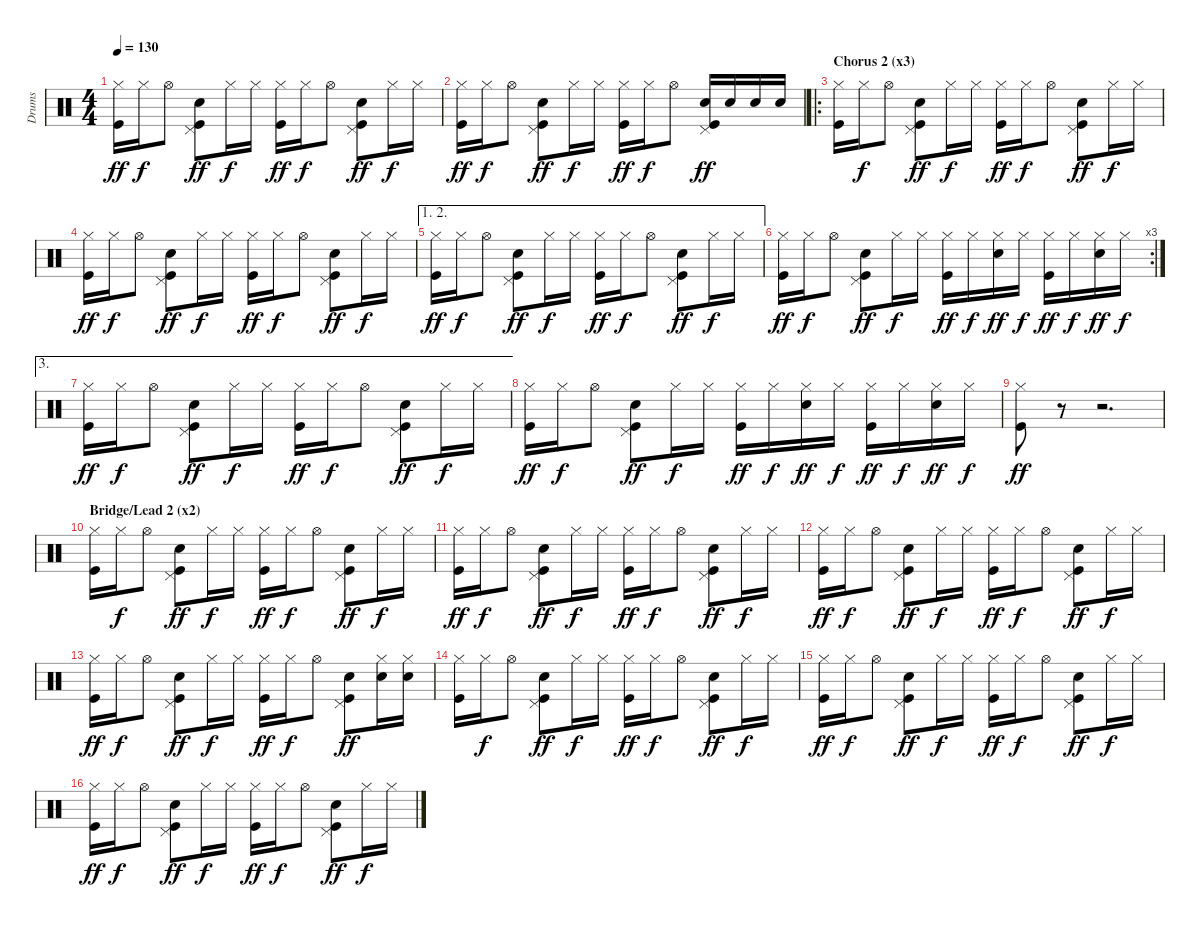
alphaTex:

\track ("Drums" "Drums") {instrument percussion}
\staff {score}
\articulation defaults
\ts (4 4)
\tempo 130
\clef neutral
\ks c
("Hi-Hat (closed)" "Kick (hit)").16{dy ff} "Hi-Hat (closed)".16{dy f} "Hi-Hat (open)".8 ("Pedal Hi-Hat (hit)" "Electric Snare (hit)" "Kick (hit)").8{dy ff} "Hi-Hat (closed)".16{dy f} "Hi-Hat (closed)".16 ("Hi-Hat (closed)" "Kick (hit)").16{dy ff} "Hi-Hat (closed)".16{dy f} "Hi-Hat (open)".8 ("Pedal Hi-Hat (hit)" "Electric Snare (hit)" "Kick (hit)").8{dy ff} "Hi-Hat (closed)".16{dy f} "Hi-Hat (closed)".16 |
("Hi-Hat (closed)" "Kick (hit)").16{dy ff} "Hi-Hat (closed)".16{dy f} "Hi-Hat (open)".8 ("Pedal Hi-Hat (hit)" "Electric Snare (hit)" "Kick (hit)").8{dy ff} "Hi-Hat (closed)".16{dy f} "Hi-Hat (closed)".16 ("Hi-Hat (closed)" "Kick (hit)").16{dy ff} "Hi-Hat (closed)".16{dy f} "Hi-Hat (open)".8 ("Pedal Hi-Hat (hit)" "Electric Snare (hit)" "Kick (hit)").16{dy ff} "Electric Snare (hit)".16 "Electric Snare (hit)".16 "Electric Snare (hit)".16 |
\ro
\section ("" "Chorus 2 (x3)")
("Hi-Hat (closed)" "Kick (hit)").16 "Hi-Hat (closed)".16{dy f} "Hi-Hat (open)".8 ("Pedal Hi-Hat (hit)" "Electric Snare (hit)" "Kick (hit)").8{dy ff} "Hi-Hat (closed)".16{dy f} "Hi-Hat (closed)".16 ("Hi-Hat (closed)" "Kick (hit)").16{dy ff} "Hi-Hat (closed)".16{dy f} "Hi-Hat (open)".8 ("Pedal Hi-Hat (hit)" "Electric Snare (hit)" "Kick (hit)").8{dy ff} "Hi-Hat (closed)".16{dy f} "Hi-Hat (closed)".16 |
("Hi-Hat (closed)" "Kick (hit)").16{dy ff} "Hi-Hat (closed)".16{dy f} "Hi-Hat (open)".8 ("Pedal Hi-Hat (hit)" "Electric Snare (hit)" "Kick (hit)").8{dy ff} "Hi-Hat (closed)".16{dy f} "Hi-Hat (closed)".16 ("Hi-Hat (closed)" "Kick (hit)").16{dy ff} "Hi-Hat (closed)".16{dy f} "Hi-Hat (open)".8 ("Pedal Hi-Hat (hit)" "Electric Snare (hit)" "Kick (hit)").8{dy ff} "Hi-Hat (closed)".16{dy f} "Hi-Hat (closed)".16 |
\ae (1 2)
("Hi-Hat (closed)" "Kick (hit)").16{dy ff} "Hi-Hat (closed)".16{dy f} "Hi-Hat (open)".8 ("Pedal Hi-Hat (hit)" "Electric Snare (hit)" "Kick (hit)").8{dy ff} "Hi-Hat (closed)".16{dy f} "Hi-Hat (closed)".16 ("Hi-Hat (closed)" "Kick (hit)").16{dy ff} "Hi-Hat (closed)".16{dy f} "Hi-Hat (open)".8 ("Pedal Hi-Hat (hit)" "Electric Snare (hit)" "Kick (hit)").8{dy ff} "Hi-Hat (closed)".16{dy f} "Hi-Hat (closed)".16 |
\rc 3
("Hi-Hat (closed)" "Kick (hit)").16{dy ff} "Hi-Hat (closed)".16{dy f} "Hi-Hat (open)".8 ("Pedal Hi-Hat (hit)" "Electric Snare (hit)" "Kick (hit)").8{dy ff} "Hi-Hat (closed)".16{dy f} "Hi-Hat (closed)".16 ("Hi-Hat (closed)" "Kick (hit)").16{dy ff} "Hi-Hat (closed)".16{dy f} ("Hi-Hat (closed)" "Electric Snare (hit)").16{dy ff} "Hi-Hat (closed)".16{dy f} ("Hi-Hat (closed)" "Kick (hit)").16{dy ff} "Hi-Hat (closed)".16{dy f} ("Hi-Hat (closed)" "Electric Snare (hit)").16{dy ff} "Hi-Hat (closed)".16{dy f} |
\ae 3
("Hi-Hat (closed)" "Kick (hit)").16{dy ff} "Hi-Hat (closed)".16{dy f} "Hi-Hat (open)".8 ("Pedal Hi-Hat (hit)" "Electric Snare (hit)" "Kick (hit)").8{dy ff} "Hi-Hat (closed)".16{dy f} "Hi-Hat (closed)".16 ("Hi-Hat (closed)" "Kick (hit)").16{dy ff} "Hi-Hat (closed)".16{dy f} "Hi-Hat (open)".8 ("Pedal Hi-Hat (hit)" "Electric Snare (hit)" "Kick (hit)").8{dy ff} "Hi-Hat (closed)".16{dy f} "Hi-Hat (closed)".16 |
("Hi-Hat (closed)" "Kick (hit)").16{dy ff} "Hi-Hat (closed)".16{dy f} "Hi-Hat (open)".8 ("Pedal Hi-Hat (hit)" "Electric Snare (hit)" "Kick (hit)").8{dy ff} "Hi-Hat (closed)".16{dy f} "Hi-Hat (closed)".16 ("Hi-Hat (closed)" "Kick (hit)").16{dy ff} "Hi-Hat (closed)".16{dy f} ("Hi-Hat (closed)" "Electric Snare (hit)").16{dy ff} "Hi-Hat (closed)".16{dy f} ("Hi-Hat (closed)" "Kick (hit)").16{dy ff} "Hi-Hat (closed)".16{dy f} ("Hi-Hat (closed)" "Electric Snare (hit)").16{dy ff} "Hi-Hat (closed)".16{dy f} |
("Hi-Hat (closed)" "Kick (hit)").8{dy ff} r.8 r.2{d} |
\section ("" "Bridge/Lead 2 (x2)")
("Hi-Hat (closed)" "Kick (hit)").16 "Hi-Hat (closed)".16{dy f} "Hi-Hat (open)".8 ("Pedal Hi-Hat (hit)" "Electric Snare (hit)" "Kick (hit)").8{dy ff} "Hi-Hat (closed)".16{dy f} "Hi-Hat (closed)".16 ("Hi-Hat (closed)" "Kick (hit)").16{dy ff} "Hi-Hat (closed)".16{dy f} "Hi-Hat (open)".8 ("Pedal Hi-Hat (hit)" "Electric Snare (hit)" "Kick (hit)").8{dy ff} "Hi-Hat (closed)".16{dy f} "Hi-Hat (closed)".16 |
("Hi-Hat (closed)" "Kick (hit)").16{dy ff} "Hi-Hat (closed)".16{dy f} "Hi-Hat (open)".8 ("Pedal Hi-Hat (hit)" "Electric Snare (hit)" "Kick (hit)").8{dy ff} "Hi-Hat (closed)".16{dy f} "Hi-Hat (closed)".16 ("Hi-Hat (closed)" "Kick (hit)").16{dy ff} "Hi-Hat (closed)".16{dy f} "Hi-Hat (open)".8 ("Pedal Hi-Hat (hit)" "Electric Snare (hit)" "Kick (hit)").8{dy ff} "Hi-Hat (closed)".16{dy f} "Hi-Hat (closed)".16 |
("Hi-Hat (closed)" "Kick (hit)").16{dy ff} "Hi-Hat (closed)".16{dy f} "Hi-Hat (open)".8 ("Pedal Hi-Hat (hit)" "Electric Snare (hit)" "Kick (hit)").8{dy ff} "Hi-Hat (closed)".16{dy f} "Hi-Hat (closed)".16 ("Hi-Hat (closed)" "Kick (hit)").16{dy ff} "Hi-Hat (closed)".16{dy f} "Hi-Hat (open)".8 ("Pedal Hi-Hat (hit)" "Electric Snare (hit)" "Kick (hit)").8{dy ff} "Hi-Hat (closed)".16{dy f} "Hi-Hat (closed)".16 |
("Hi-Hat (closed)" "Kick (hit)").16{dy ff} "Hi-Hat (closed)".16{dy f} "Hi-Hat (open)".8 ("Pedal Hi-Hat (hit)" "Electric Snare (hit)" "Kick (hit)").8{dy ff} "Hi-Hat (closed)".16{dy f} "Hi-Hat (closed)".16 ("Hi-Hat (closed)" "Kick (hit)").16{dy ff} "Hi-Hat (closed)".16{dy f} "Hi-Hat (open)".8 ("Pedal Hi-Hat (hit)" "Electric Snare (hit)" "Kick (hit)").8{dy ff} ("Hi-Hat (closed)" "Electric Snare (hit)").16 ("Hi-Hat (closed)" "Electric Snare (hit)").16 |
("Hi-Hat (closed)" "Kick (hit)").16 "Hi-Hat (closed)".16{dy f} "Hi-Hat (open)".8 ("Pedal Hi-Hat (hit)" "Electric Snare (hit)" "Kick (hit)").8{dy ff} "Hi-Hat (closed)".16{dy f} "Hi-Hat (closed)".16 ("Hi-Hat (closed)" "Kick (hit)").16{dy ff} "Hi-Hat (closed)".16{dy f} "Hi-Hat (open)".8 ("Pedal Hi-Hat (hit)" "Electric Snare (hit)" "Kick (hit)").8{dy ff} "Hi-Hat (closed)".16{dy f} "Hi-Hat (closed)".16 |
("Hi-Hat (closed)" "Kick (hit)").16{dy ff} "Hi-Hat (closed)".16{dy f} "Hi-Hat (open)".8 ("Pedal Hi-Hat (hit)" "Electric Snare (hit)" "Kick (hit)").8{dy ff} "Hi-Hat (closed)".16{dy f} "Hi-Hat (closed)".16 ("Hi-Hat (closed)" "Kick (hit)").16{dy ff} "Hi-Hat (closed)".16{dy f} "Hi-Hat (open)".8 ("Pedal Hi-Hat (hit)" "Electric Snare (hit)" "Kick (hit)").8{dy ff} "Hi-Hat (closed)".16{dy f} "Hi-Hat (closed)".16 |
("Hi-Hat (closed)" "Kick (hit)").16{dy ff} "Hi-Hat (closed)".16{dy f} "Hi-Hat (open)".8 ("Pedal Hi-Hat (hit)" "Electric Snare (hit)" "Kick (hit)").8{dy ff} "Hi-Hat (closed)".16{dy f} "Hi-Hat (closed)".16 ("Hi-Hat (closed)" "Kick (hit)").16{dy ff} "Hi-Hat (closed)".16{dy f} "Hi-Hat (open)".8 ("Pedal Hi-Hat (hit)" "Electric Snare (hit)" "Kick (hit)").8{dy ff} "Hi-Hat (closed)".16{dy f} "Hi-Hat (closed)".16
